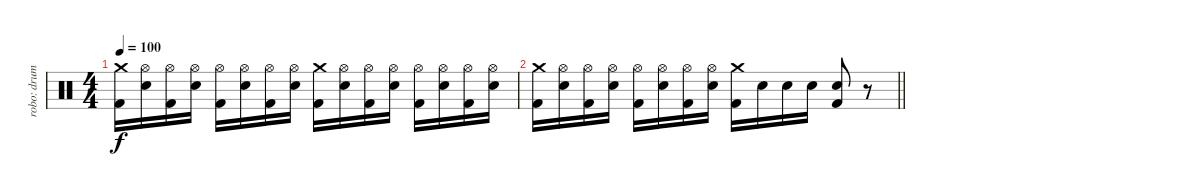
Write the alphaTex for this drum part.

\track ("robo: drums" "robo: drum") {instrument percussion}
\staff {score}
\articulation defaults
\ts (4 4)
\tempo 100
\clef neutral
\ks c
("Crash medium (hit)" "Kick (hit) 2").16{dy f} ("Hi-Hat (open)" "Electric Snare (hit)").16 ("Hi-Hat (open)" "Kick (hit) 2").16 ("Hi-Hat (open)" "Electric Snare (hit)").16 ("Hi-Hat (open)" "Kick (hit) 2").16 ("Hi-Hat (open)" "Electric Snare (hit)").16 ("Hi-Hat (open)" "Kick (hit) 2").16 ("Hi-Hat (open)" "Electric Snare (hit)").16 ("Crash medium (hit)" "Kick (hit) 2").16 ("Hi-Hat (open)" "Electric Snare (hit)").16 ("Hi-Hat (open)" "Kick (hit) 2").16 ("Hi-Hat (open)" "Electric Snare (hit)").16 ("Hi-Hat (open)" "Kick (hit) 2").16 ("Hi-Hat (open)" "Electric Snare (hit)").16 ("Hi-Hat (open)" "Kick (hit) 2").16 ("Hi-Hat (open)" "Electric Snare (hit)").16 |
\barLineRight lightlight
("Crash medium (hit)" "Kick (hit) 2").16 ("Hi-Hat (open)" "Electric Snare (hit)").16 ("Hi-Hat (open)" "Kick (hit) 2").16 ("Hi-Hat (open)" "Electric Snare (hit)").16 ("Hi-Hat (open)" "Kick (hit) 2").16 ("Hi-Hat (open)" "Electric Snare (hit)").16 ("Hi-Hat (open)" "Kick (hit) 2").16 ("Hi-Hat (open)" "Electric Snare (hit)").16 ("Crash medium (hit)" "Kick (hit) 2").16 "Electric Snare (hit)".16 "Electric Snare (hit)".16 "Electric Snare (hit)".16 ("Electric Snare (hit)" "Kick (hit) 2").8 r.8
